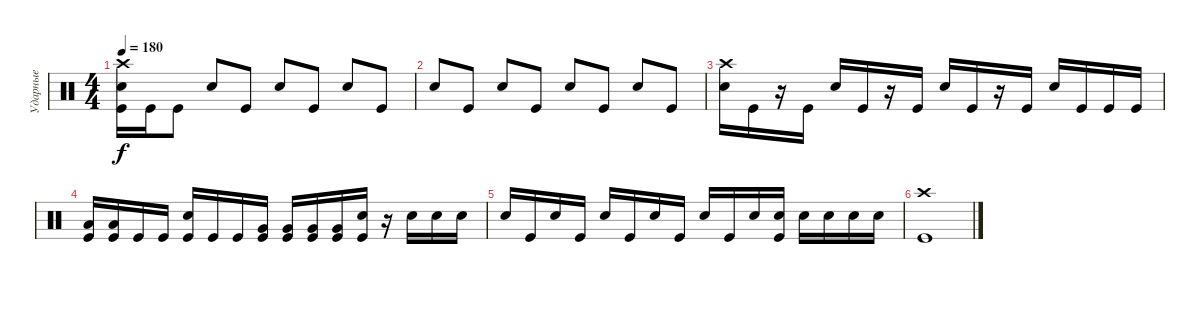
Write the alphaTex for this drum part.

\track ("Ударные" "Ударные") {instrument percussion}
\staff {score}
\articulation defaults
\ts (4 4)
\tempo 180
\clef neutral
\ks c
("Crash high (hit)" "Electric Snare (hit)" "Kick (hit)").16{dy f} "Kick (hit)".16 "Kick (hit)".8 "Electric Snare (hit)".8 "Kick (hit)".8 "Electric Snare (hit)".8 "Kick (hit)".8 "Electric Snare (hit)".8 "Kick (hit)".8 |
"Electric Snare (hit)".8 "Kick (hit)".8 "Electric Snare (hit)".8 "Kick (hit)".8 "Electric Snare (hit)".8 "Kick (hit)".8 "Electric Snare (hit)".8 "Kick (hit)".8 |
("Crash high (hit)" "Electric Snare (hit)").16 "Kick (hit)".16 r.16 "Kick (hit)".16 "Electric Snare (hit)".16 "Kick (hit)".16 r.16 "Kick (hit)".16 "Electric Snare (hit)".16 "Kick (hit)".16 r.16 "Kick (hit)".16 "Electric Snare (hit)".16 "Kick (hit)".16 "Kick (hit)".16 "Kick (hit)".16 |
("Low Tom (hit)" "Kick (hit)").16 ("Low Tom (hit)" "Kick (hit)").16 "Kick (hit)".16 "Kick (hit)".16 ("Electric Snare (hit)" "Kick (hit)").16 "Kick (hit)".16 "Kick (hit)".16 ("Very Low Tom (hit)" "Kick (hit)").16 ("Very Low Tom (hit)" "Kick (hit)").16 ("Very Low Tom (hit)" "Kick (hit)").16 ("Very Low Tom (hit)" "Kick (hit)").16 ("Electric Snare (hit)" "Kick (hit)").16 r.16 "Electric Snare (hit)".16 "Electric Snare (hit)".16 "Electric Snare (hit)".16 |
"Electric Snare (hit)".16 "Kick (hit)".16 "Electric Snare (hit)".16 "Kick (hit)".16 "Electric Snare (hit)".16 "Kick (hit)".16 "Electric Snare (hit)".16 "Kick (hit)".16 "Electric Snare (hit)".16 "Kick (hit)".16 "Electric Snare (hit)".16 ("Electric Snare (hit)" "Kick (hit)").16 "Electric Snare (hit)".16 "Electric Snare (hit)".16 "Electric Snare (hit)".16 "Electric Snare (hit)".16 |
("Crash high (hit)" "Kick (hit)").1
